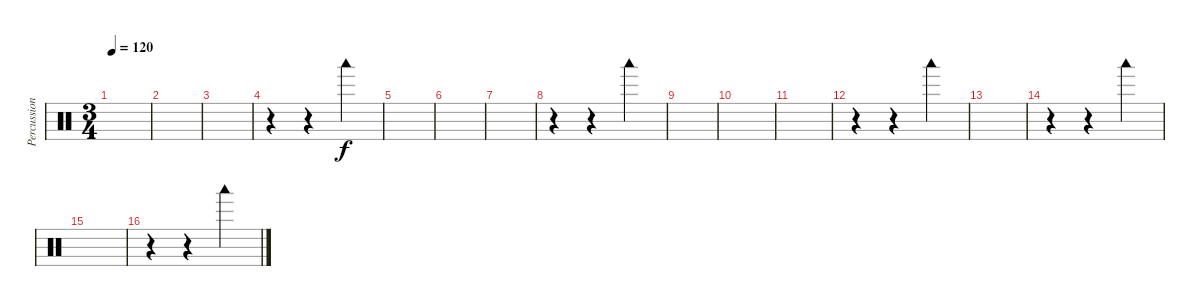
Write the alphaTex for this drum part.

\track ("Percussion" "Percussion") {instrument percussion}
\staff {score}
\articulation defaults
\ts (3 4)
\tempo 120
\clef neutral
\ks c
|
|
|
r.4 r.4 "Woodblock low (hit)".4 |
|
|
|
r.4 r.4 "Woodblock low (hit)".4 |
|
|
|
r.4 r.4 "Woodblock low (hit)".4 |
|
r.4 r.4 "Woodblock low (hit)".4 |
|
r.4 r.4 "Woodblock low (hit)".4
